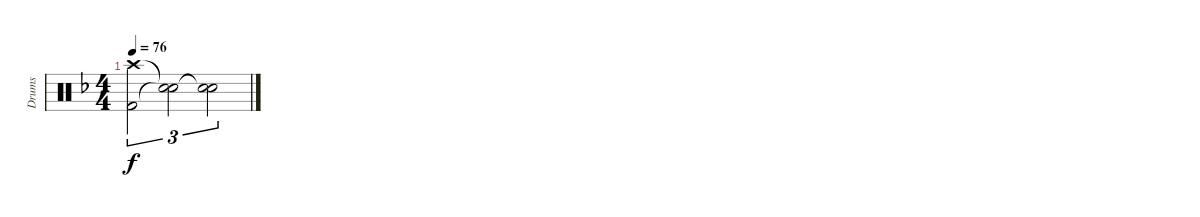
\track ("Drums" "Drums") {instrument percussion}
\staff {score}
\articulation defaults
\ts (4 4)
\tempo 76
\clef neutral
\ks f
("Crash high (hit)" "Kick (hit) 2").2{tu (3 2) dy f} ("Snare (hit)"{t} "Snare (hit)"{t}).2{tu (3 2)} ("Snare (hit)"{t} "Snare (hit)"{t}).2{tu (3 2)}
